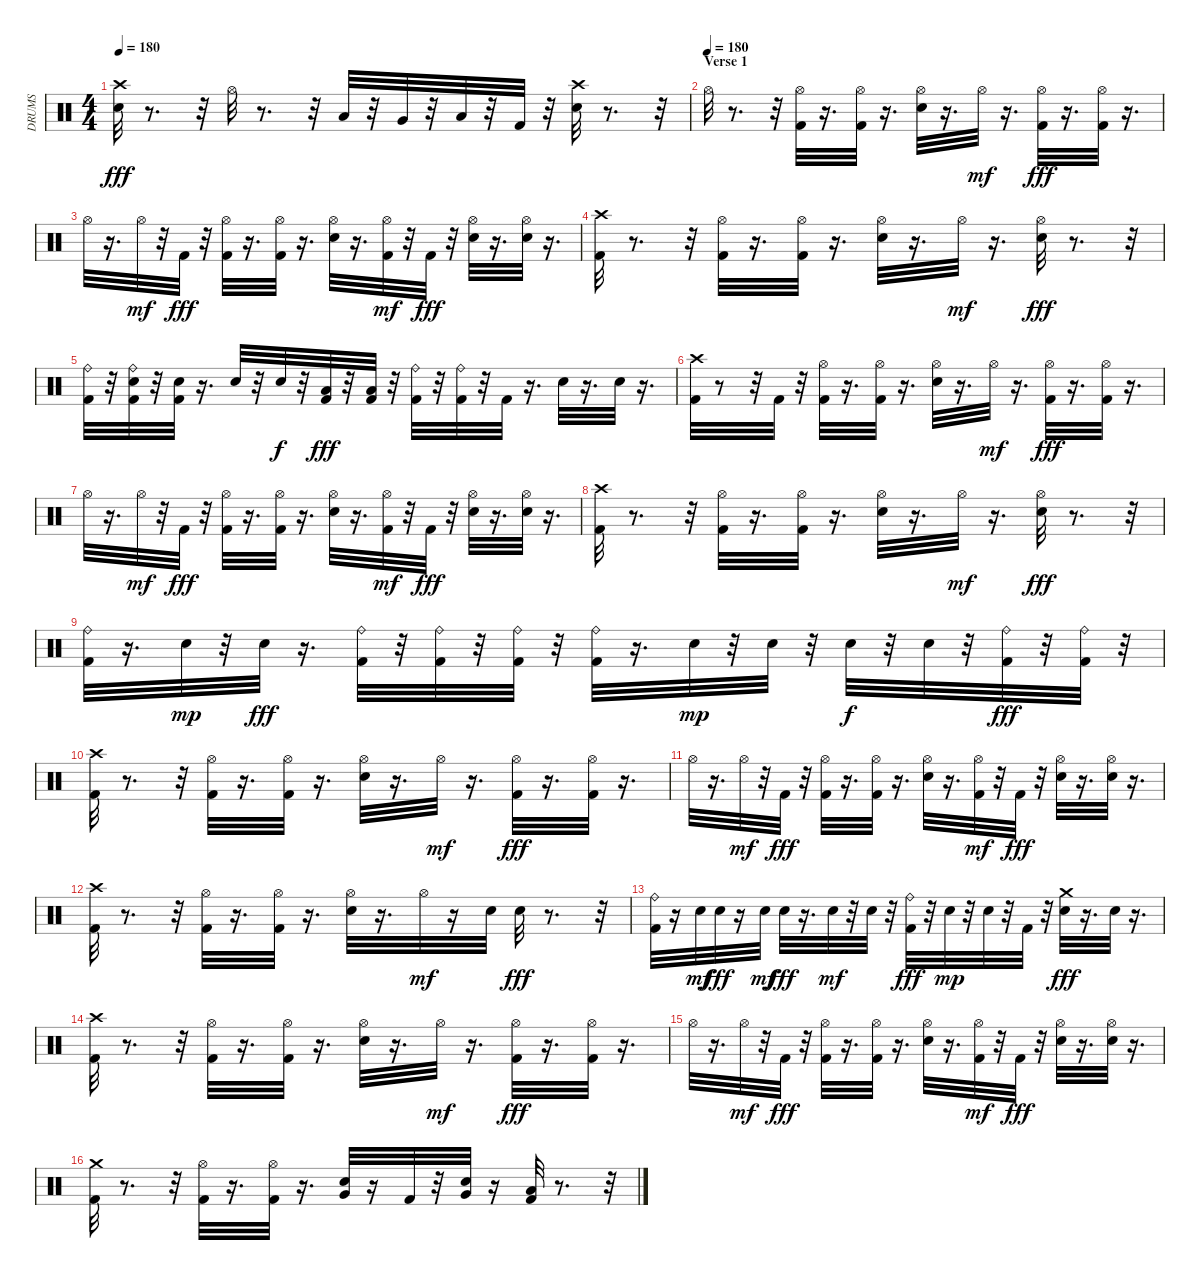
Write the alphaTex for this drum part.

\track ("DRUMS" "DRUMS") {instrument percussion}
\staff {score}
\articulation defaults
\ts (4 4)
\tempo 180
\clef neutral
\ks c
("Crash high (hit)" "Electric Snare (hit)").32{dy fff} r.8{d} r.32 "Hi-Hat (open)".32 r.8{d} r.32 "Low Tom (hit)".32 r.32 "Very Low Tom (hit)".32 r.32 "Low Floor Tom (hit)".32 r.32 "Kick (hit) 2".32 r.32 ("Crash high (hit)" "Electric Snare (hit)").32 r.8{d} r.32 |
\section ("" "Verse 1")
\tempo (180)
"Hi-Hat (open)".32 r.8{d} r.32 ("Hi-Hat (open)" "Kick (hit) 2").32 r.16{d} ("Hi-Hat (open)" "Kick (hit) 2").32 r.16{d} ("Hi-Hat (open)" "Electric Snare (hit)").32 r.16{d} "Hi-Hat (open)".32{dy mf} r.16{d} ("Hi-Hat (open)" "Kick (hit) 2").32{dy fff} r.16{d} ("Hi-Hat (open)" "Kick (hit) 2").32 r.16{d} |
"Hi-Hat (open)".32 r.16{d} "Hi-Hat (open)".32{dy mf} r.32 "Kick (hit) 2".32{dy fff} r.32 ("Hi-Hat (open)" "Kick (hit) 2").32 r.16{d} ("Hi-Hat (open)" "Kick (hit) 2").32 r.16{d} ("Hi-Hat (open)" "Electric Snare (hit)").32 r.16{d} ("Hi-Hat (open)" "Kick (hit) 2").32{dy mf} r.32 "Kick (hit) 2".32{dy fff} r.32 ("Hi-Hat (open)" "Electric Snare (hit)").32 r.16{d} ("Hi-Hat (open)" "Electric Snare (hit)").32 r.16{d} |
("Crash high (hit)" "Kick (hit) 2").32 r.8{d} r.32 ("Hi-Hat (open)" "Kick (hit) 2").32 r.16{d} ("Hi-Hat (open)" "Kick (hit) 2").32 r.16{d} ("Hi-Hat (open)" "Electric Snare (hit)").32 r.16{d} "Hi-Hat (open)".32{dy mf} r.16{d} ("Hi-Hat (open)" "Electric Snare (hit)").32{dy fff} r.8{d} r.32 |
("Ride (bell)" "Kick (hit) 2").32 r.32 ("Ride (bell)" "Electric Snare (hit)" "Kick (hit) 2").32 r.32 ("Electric Snare (hit)" "Kick (hit) 2").32 r.16{d} "Electric Snare (hit)".32 r.32 "Electric Snare (hit)".32{dy f} r.32 ("Low Floor Tom (hit)" "Kick (hit) 2").32{dy fff} r.32 ("Low Floor Tom (hit)" "Kick (hit) 2").32 r.32 ("Ride (bell)" "Kick (hit) 2").32 r.32 ("Ride (bell)" "Kick (hit) 2").32 r.32 "Kick (hit) 2".32 r.16{d} "Electric Snare (hit)".32 r.16{d} "Electric Snare (hit)".32 r.16{d} |
("Crash high (hit)" "Kick (hit) 2").32 r.8 r.32 "Kick (hit) 2".32 r.32 ("Hi-Hat (open)" "Kick (hit) 2").32 r.16{d} ("Hi-Hat (open)" "Kick (hit) 2").32 r.16{d} ("Hi-Hat (open)" "Electric Snare (hit)").32 r.16{d} "Hi-Hat (open)".32{dy mf} r.16{d} ("Hi-Hat (open)" "Kick (hit) 2").32{dy fff} r.16{d} ("Hi-Hat (open)" "Kick (hit) 2").32 r.16{d} |
"Hi-Hat (open)".32 r.16{d} "Hi-Hat (open)".32{dy mf} r.32 "Kick (hit) 2".32{dy fff} r.32 ("Hi-Hat (open)" "Kick (hit) 2").32 r.16{d} ("Hi-Hat (open)" "Kick (hit) 2").32 r.16{d} ("Hi-Hat (open)" "Electric Snare (hit)").32 r.16{d} ("Hi-Hat (open)" "Kick (hit) 2").32{dy mf} r.32 "Kick (hit) 2".32{dy fff} r.32 ("Hi-Hat (open)" "Electric Snare (hit)").32 r.16{d} ("Hi-Hat (open)" "Electric Snare (hit)").32 r.16{d} |
("Crash high (hit)" "Kick (hit) 2").32 r.8{d} r.32 ("Hi-Hat (open)" "Kick (hit) 2").32 r.16{d} ("Hi-Hat (open)" "Kick (hit) 2").32 r.16{d} ("Hi-Hat (open)" "Electric Snare (hit)").32 r.16{d} "Hi-Hat (open)".32{dy mf} r.16{d} ("Hi-Hat (open)" "Electric Snare (hit)").32{dy fff} r.8{d} r.32 |
("Ride (bell)" "Kick (hit) 2").32 r.16{d} "Electric Snare (hit)".32{dy mp} r.32 "Electric Snare (hit)".32{dy fff} r.16{d} ("Ride (bell)" "Kick (hit) 2").32 r.32 ("Ride (bell)" "Kick (hit) 2").32 r.32 ("Ride (bell)" "Kick (hit) 2").32 r.32 ("Ride (bell)" "Kick (hit) 2").32 r.16{d} "Electric Snare (hit)".32{dy mp} r.32 "Electric Snare (hit)".32 r.32 "Electric Snare (hit)".32{dy f} r.32 "Electric Snare (hit)".32 r.32 ("Ride (bell)" "Kick (hit) 2").32{dy fff} r.32 ("Ride (bell)" "Kick (hit) 2").32 r.32 |
("Crash high (hit)" "Kick (hit) 2").32 r.8{d} r.32 ("Hi-Hat (open)" "Kick (hit) 2").32 r.16{d} ("Hi-Hat (open)" "Kick (hit) 2").32 r.16{d} ("Hi-Hat (open)" "Electric Snare (hit)").32 r.16{d} "Hi-Hat (open)".32{dy mf} r.16{d} ("Hi-Hat (open)" "Kick (hit) 2").32{dy fff} r.16{d} ("Hi-Hat (open)" "Kick (hit) 2").32 r.16{d} |
"Hi-Hat (open)".32 r.16{d} "Hi-Hat (open)".32{dy mf} r.32 "Kick (hit) 2".32{dy fff} r.32 ("Hi-Hat (open)" "Kick (hit) 2").32 r.16{d} ("Hi-Hat (open)" "Kick (hit) 2").32 r.16{d} ("Hi-Hat (open)" "Electric Snare (hit)").32 r.16{d} ("Hi-Hat (open)" "Kick (hit) 2").32{dy mf} r.32 "Kick (hit) 2".32{dy fff} r.32 ("Hi-Hat (open)" "Electric Snare (hit)").32 r.16{d} ("Hi-Hat (open)" "Electric Snare (hit)").32 r.16{d} |
("Crash high (hit)" "Kick (hit) 2").32 r.8{d} r.32 ("Hi-Hat (open)" "Kick (hit) 2").32 r.16{d} ("Hi-Hat (open)" "Kick (hit) 2").32 r.16{d} ("Hi-Hat (open)" "Electric Snare (hit)").32 r.16{d} "Hi-Hat (open)".32{dy mf} r.16 "Electric Snare (hit)".32 "Electric Snare (hit)".32{dy fff} r.8{d} r.32 |
("Ride (bell)" "Kick (hit) 2").32 r.16 "Electric Snare (hit)".32{dy mf} "Electric Snare (hit)".32{dy fff} r.16 "Electric Snare (hit)".32{dy mf} "Electric Snare (hit)".32{dy fff} r.16{d} "Electric Snare (hit)".32{dy mf} r.32 "Electric Snare (hit)".32 r.32 ("Ride (bell)" "Kick (hit) 2").32{dy fff} r.32 "Electric Snare (hit)".32{dy mp} r.32 "Electric Snare (hit)".32 r.32 "Kick (hit) 2".32 r.32 ("Crash medium (hit)" "Electric Snare (hit)").32{dy fff} r.16{d} "Electric Snare (hit)".32 r.16{d} |
("Crash high (hit)" "Kick (hit) 2").32 r.8{d} r.32 ("Hi-Hat (open)" "Kick (hit) 2").32 r.16{d} ("Hi-Hat (open)" "Kick (hit) 2").32 r.16{d} ("Hi-Hat (open)" "Electric Snare (hit)").32 r.16{d} "Hi-Hat (open)".32{dy mf} r.16{d} ("Hi-Hat (open)" "Kick (hit) 2").32{dy fff} r.16{d} ("Hi-Hat (open)" "Kick (hit) 2").32 r.16{d} |
"Hi-Hat (open)".32 r.16{d} "Hi-Hat (open)".32{dy mf} r.32 "Kick (hit) 2".32{dy fff} r.32 ("Hi-Hat (open)" "Kick (hit) 2").32 r.16{d} ("Hi-Hat (open)" "Kick (hit) 2").32 r.16{d} ("Hi-Hat (open)" "Electric Snare (hit)").32 r.16{d} ("Hi-Hat (open)" "Kick (hit) 2").32{dy mf} r.32 "Kick (hit) 2".32{dy fff} r.32 ("Hi-Hat (open)" "Electric Snare (hit)").32 r.16{d} ("Hi-Hat (open)" "Electric Snare (hit)").32 r.16{d} |
("Crash medium (hit)" "Kick (hit) 2").32 r.8{d} r.32 ("Hi-Hat (open)" "Kick (hit) 2").32 r.16{d} ("Hi-Hat (open)" "Kick (hit) 2").32 r.16{d} ("Electric Snare (hit)" "Very Low Tom (hit)").32 r.16 "Kick (hit) 2".32 r.32 ("Electric Snare (hit)" "Very Low Tom (hit)").32 r.16 ("Low Floor Tom (hit)" "Kick (hit) 2").32 r.8{d} r.32
